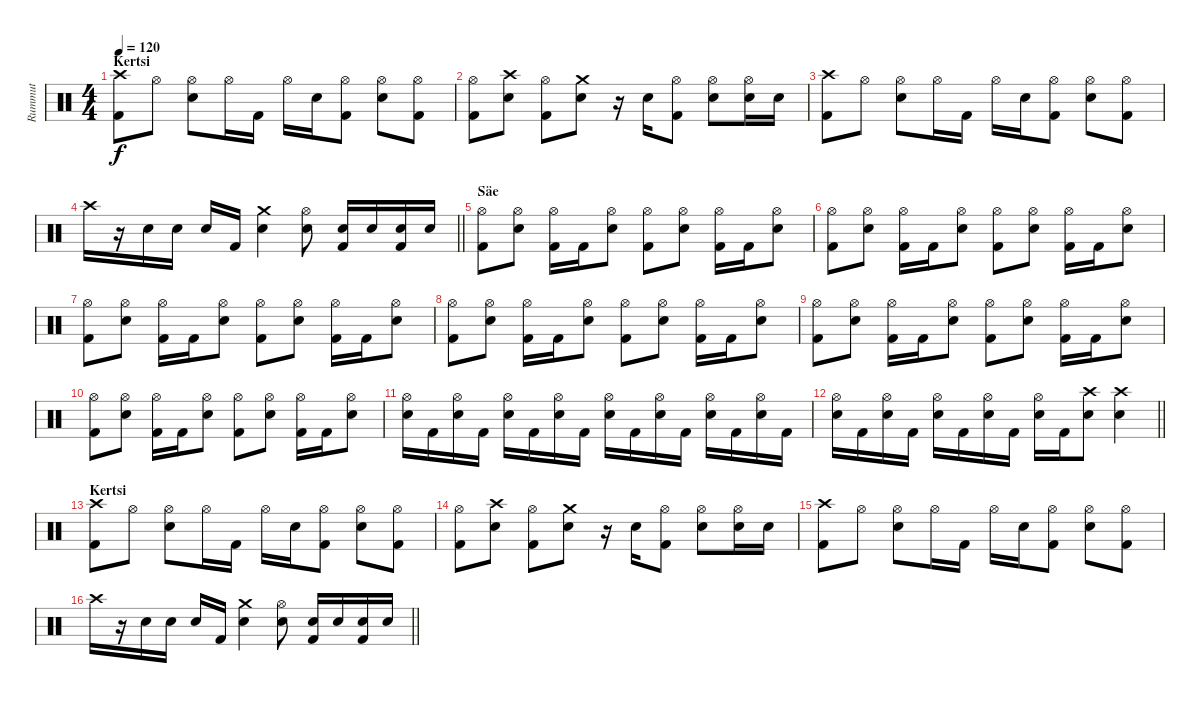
\track ("Rummut" "Rummut") {instrument percussion}
\staff {score}
\articulation defaults
\ts (4 4)
\section ("" "Kertsi")
\tempo 120
\clef neutral
\ks c
("Crash high (hit)" "Kick (hit) 2").8{dy f} "Hi-Hat (open)".8 ("Hi-Hat (open)" "Snare (hit) 2").8 "Hi-Hat (open)".16 "Kick (hit) 2".16 "Hi-Hat (open)".16 "Snare (hit) 2".16 ("Hi-Hat (open)" "Kick (hit) 2").8 ("Hi-Hat (open)" "Snare (hit) 2").8 ("Hi-Hat (open)" "Kick (hit) 2").8 |
("Hi-Hat (open)" "Kick (hit) 2").8 ("Crash high (hit)" "Snare (hit) 2").8 ("Hi-Hat (open)" "Kick (hit) 2").8 ("Crash medium (hit)" "Snare (hit) 2").8 r.16 "Snare (hit) 2".16 ("Hi-Hat (open)" "Kick (hit) 2").8 ("Hi-Hat (open)" "Snare (hit) 2").8 ("Hi-Hat (open)" "Snare (hit) 2").16 "Snare (hit) 2".16 |
("Crash high (hit)" "Kick (hit) 2").8 "Hi-Hat (open)".8 ("Hi-Hat (open)" "Snare (hit) 2").8 "Hi-Hat (open)".16 "Kick (hit) 2".16 "Hi-Hat (open)".16 "Snare (hit) 2".16 ("Hi-Hat (open)" "Kick (hit) 2").8 ("Hi-Hat (open)" "Snare (hit) 2").8 ("Hi-Hat (open)" "Kick (hit) 2").8 |
\barLineRight lightlight "Crash high (hit)".16
r.16 "Snare (hit) 2".16 "Snare (hit) 2".16 "Snare (hit) 2".16 "Kick (hit) 2".16 ("Crash medium (hit)" "Snare (hit) 2").4 ("Hi-Hat (open)" "Snare (hit) 2").8 ("Snare (hit) 2" "Kick (hit) 2").16 "Snare (hit) 2".16 ("Snare (hit) 2" "Kick (hit) 2").16 "Snare (hit) 2".16 |
\section ("" "Säe")
("Hi-Hat (open)" "Kick (hit) 2").8 ("Hi-Hat (open)" "Snare (hit) 2").8 ("Hi-Hat (open)" "Kick (hit) 2").16 "Kick (hit) 2".16 ("Hi-Hat (open)" "Snare (hit) 2").8 ("Hi-Hat (open)" "Kick (hit) 2").8 ("Hi-Hat (open)" "Snare (hit) 2").8 ("Hi-Hat (open)" "Kick (hit) 2").16 "Kick (hit) 2".16 ("Hi-Hat (open)" "Snare (hit) 2").8 |
("Hi-Hat (open)" "Kick (hit) 2").8 ("Hi-Hat (open)" "Snare (hit) 2").8 ("Hi-Hat (open)" "Kick (hit) 2").16 "Kick (hit) 2".16 ("Hi-Hat (open)" "Snare (hit) 2").8 ("Hi-Hat (open)" "Kick (hit) 2").8 ("Hi-Hat (open)" "Snare (hit) 2").8 ("Hi-Hat (open)" "Kick (hit) 2").16 "Kick (hit) 2".16 ("Hi-Hat (open)" "Snare (hit) 2").8 |
("Hi-Hat (open)" "Kick (hit) 2").8 ("Hi-Hat (open)" "Snare (hit) 2").8 ("Hi-Hat (open)" "Kick (hit) 2").16 "Kick (hit) 2".16 ("Hi-Hat (open)" "Snare (hit) 2").8 ("Hi-Hat (open)" "Kick (hit) 2").8 ("Hi-Hat (open)" "Snare (hit) 2").8 ("Hi-Hat (open)" "Kick (hit) 2").16 "Kick (hit) 2".16 ("Hi-Hat (open)" "Snare (hit) 2").8 |
("Hi-Hat (open)" "Kick (hit) 2").8 ("Hi-Hat (open)" "Snare (hit) 2").8 ("Hi-Hat (open)" "Kick (hit) 2").16 "Kick (hit) 2".16 ("Hi-Hat (open)" "Snare (hit) 2").8 ("Hi-Hat (open)" "Kick (hit) 2").8 ("Hi-Hat (open)" "Snare (hit) 2").8 ("Hi-Hat (open)" "Kick (hit) 2").16 "Kick (hit) 2".16 ("Hi-Hat (open)" "Snare (hit) 2").8 |
("Hi-Hat (open)" "Kick (hit) 2").8 ("Hi-Hat (open)" "Snare (hit) 2").8 ("Hi-Hat (open)" "Kick (hit) 2").16 "Kick (hit) 2".16 ("Hi-Hat (open)" "Snare (hit) 2").8 ("Hi-Hat (open)" "Kick (hit) 2").8 ("Hi-Hat (open)" "Snare (hit) 2").8 ("Hi-Hat (open)" "Kick (hit) 2").16 "Kick (hit) 2".16 ("Hi-Hat (open)" "Snare (hit) 2").8 |
("Hi-Hat (open)" "Kick (hit) 2").8 ("Hi-Hat (open)" "Snare (hit) 2").8 ("Hi-Hat (open)" "Kick (hit) 2").16 "Kick (hit) 2".16 ("Hi-Hat (open)" "Snare (hit) 2").8 ("Hi-Hat (open)" "Kick (hit) 2").8 ("Hi-Hat (open)" "Snare (hit) 2").8 ("Hi-Hat (open)" "Kick (hit) 2").16 "Kick (hit) 2".16 ("Hi-Hat (open)" "Snare (hit) 2").8 |
("Hi-Hat (open)" "Snare (hit) 2").16 "Kick (hit) 2".16 ("Hi-Hat (open)" "Snare (hit) 2").16 "Kick (hit) 2".16 ("Hi-Hat (open)" "Snare (hit) 2").16 "Kick (hit) 2".16 ("Hi-Hat (open)" "Snare (hit) 2").16 "Kick (hit) 2".16 ("Hi-Hat (open)" "Snare (hit) 2").16 "Kick (hit) 2".16 ("Hi-Hat (open)" "Snare (hit) 2").16 "Kick (hit) 2".16 ("Hi-Hat (open)" "Snare (hit) 2").16 "Kick (hit) 2".16 ("Hi-Hat (open)" "Snare (hit) 2").16 "Kick (hit) 2".16 |
\barLineRight lightlight
("Hi-Hat (open)" "Snare (hit) 2").16 "Kick (hit) 2".16 ("Hi-Hat (open)" "Snare (hit) 2").16 "Kick (hit) 2".16 ("Hi-Hat (open)" "Snare (hit) 2").16 "Kick (hit) 2".16 ("Hi-Hat (open)" "Snare (hit) 2").16 "Kick (hit) 2".16 ("Hi-Hat (open)" "Snare (hit) 2").16 "Kick (hit) 2".16 ("Crash high (hit)" "Snare (hit) 2").8 ("Crash high (hit)" "Snare (hit) 2").4 |
\section ("" "Kertsi")
("Crash high (hit)" "Kick (hit) 2").8 "Hi-Hat (open)".8 ("Hi-Hat (open)" "Snare (hit) 2").8 "Hi-Hat (open)".16 "Kick (hit) 2".16 "Hi-Hat (open)".16 "Snare (hit) 2".16 ("Hi-Hat (open)" "Kick (hit) 2").8 ("Hi-Hat (open)" "Snare (hit) 2").8 ("Hi-Hat (open)" "Kick (hit) 2").8 |
("Hi-Hat (open)" "Kick (hit) 2").8 ("Crash high (hit)" "Snare (hit) 2").8 ("Hi-Hat (open)" "Kick (hit) 2").8 ("Crash medium (hit)" "Snare (hit) 2").8 r.16 "Snare (hit) 2".16 ("Hi-Hat (open)" "Kick (hit) 2").8 ("Hi-Hat (open)" "Snare (hit) 2").8 ("Hi-Hat (open)" "Snare (hit) 2").16 "Snare (hit) 2".16 |
("Crash high (hit)" "Kick (hit) 2").8 "Hi-Hat (open)".8 ("Hi-Hat (open)" "Snare (hit) 2").8 "Hi-Hat (open)".16 "Kick (hit) 2".16 "Hi-Hat (open)".16 "Snare (hit) 2".16 ("Hi-Hat (open)" "Kick (hit) 2").8 ("Hi-Hat (open)" "Snare (hit) 2").8 ("Hi-Hat (open)" "Kick (hit) 2").8 |
\barLineRight lightlight "Crash high (hit)".16
r.16 "Snare (hit) 2".16 "Snare (hit) 2".16 "Snare (hit) 2".16 "Kick (hit) 2".16 ("Crash medium (hit)" "Snare (hit) 2").4 ("Hi-Hat (open)" "Snare (hit) 2").8 ("Snare (hit) 2" "Kick (hit) 2").16 "Snare (hit) 2".16 ("Snare (hit) 2" "Kick (hit) 2").16 "Snare (hit) 2".16
